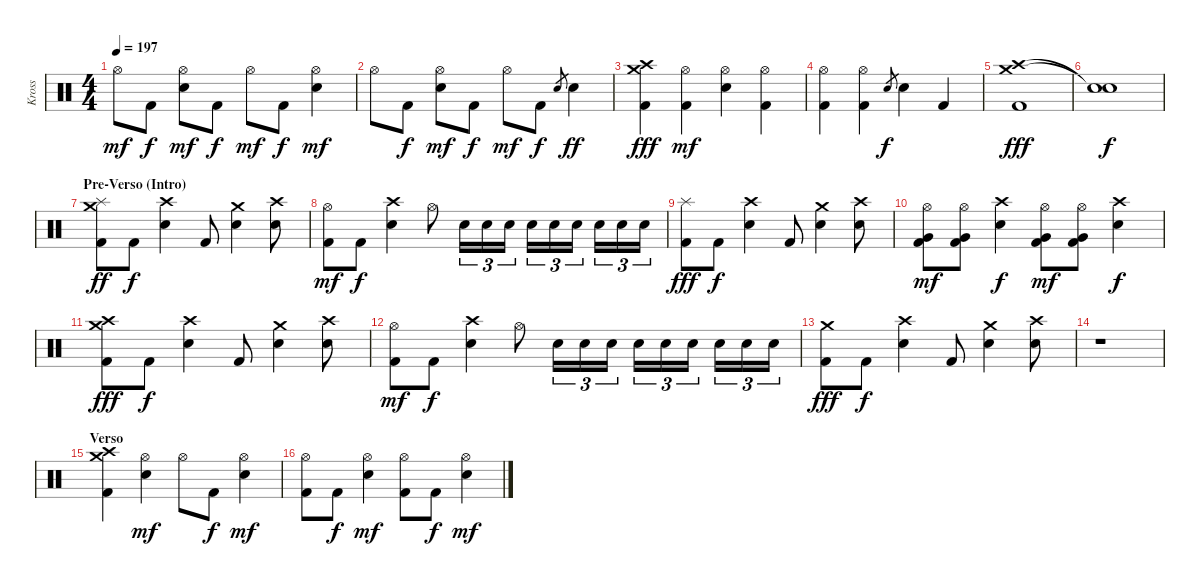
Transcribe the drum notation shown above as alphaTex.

\track ("Kross" "Kross") {instrument percussion}
\staff {score}
\articulation defaults
\ts (4 4)
\tempo 197
\clef neutral
\ks c "Hi-Hat (open)".8{dy mf} "Kick (hit) 2".8{dy f}
("Hi-Hat (open)" "Electric Snare (hit)").8{dy mf} "Kick (hit) 2".8{dy f} "Hi-Hat (open)".8{dy mf} "Kick (hit) 2".8{dy f} ("Hi-Hat (open)" "Electric Snare (hit)").4{dy mf} |
"Hi-Hat (open)".8 "Kick (hit) 2".8{dy f} ("Hi-Hat (open)" "Electric Snare (hit)").8{dy mf} "Kick (hit) 2".8{dy f} "Hi-Hat (open)".8{dy mf} "Kick (hit) 2".8{dy f} "Electric Snare (hit)".8{gr} "Electric Snare (hit)".4{dy ff} |
("Crash medium (hit)" "Crash high (hit)" "Kick (hit) 2").4{dy fff} ("Hi-Hat (open)" "Kick (hit) 2").4{dy mf} ("Hi-Hat (open)" "Electric Snare (hit)").4 ("Hi-Hat (open)" "Kick (hit) 2").4 |
("Hi-Hat (open)" "Kick (hit) 2").4 ("Hi-Hat (open)" "Kick (hit) 2").4 "Electric Snare (hit)".8{gr dy f} "Electric Snare (hit)".4 "Kick (hit) 2".4 |
("Crash high (hit)" "Crash medium (hit)" "Kick (hit) 2").1{dy fff} |
("Snare (hit)"{t} "Snare (hit)"{t}).1{dy f} |
\section ("" "Pre-Verso (Intro)")
("Crash medium (hit)" "Splash (hit)" "Kick (hit) 2").8{dy ff} "Kick (hit) 2".8{dy f} ("Crash high (hit)" "Electric Snare (hit)").4 "Kick (hit) 2".8 ("Crash medium (hit)" "Electric Snare (hit)").4 ("Crash high (hit)" "Electric Snare (hit)").8 |
("Hi-Hat (open)" "Kick (hit) 2").8{dy mf} "Kick (hit) 2".8{dy f} ("Crash high (hit)" "Electric Snare (hit)").4 "Hi-Hat (open)".8 "Electric Snare (hit)".16{tu (3 2)} "Electric Snare (hit)".16{tu (3 2)} "Electric Snare (hit)".16{tu (3 2)} "Electric Snare (hit)".16{tu (3 2)} "Electric Snare (hit)".16{tu (3 2)} "Electric Snare (hit)".16{tu (3 2)} "Electric Snare (hit)".16{tu (3 2)} "Electric Snare (hit)".16{tu (3 2)} "Electric Snare (hit)".16{tu (3 2)} |
("Splash (hit)" "Kick (hit) 2").8{dy fff} "Kick (hit) 2".8{dy f} ("Crash high (hit)" "Electric Snare (hit)").4 "Kick (hit) 2".8 ("Crash medium (hit)" "Electric Snare (hit)").4 ("Crash high (hit)" "Electric Snare (hit)").8 |
("Hi-Hat (open)" "Very Low Tom (hit)" "Kick (hit) 2").8{dy mf} ("Hi-Hat (open)" "Very Low Tom (hit)" "Kick (hit) 2").8 ("Crash high (hit)" "Electric Snare (hit)").4{dy f} ("Hi-Hat (open)" "Very Low Tom (hit)" "Kick (hit) 2").8{dy mf} ("Hi-Hat (open)" "Very Low Tom (hit)" "Kick (hit) 2").8 ("Crash high (hit)" "Electric Snare (hit)").4{dy f} |
("Crash medium (hit)" "Crash high (hit)" "Kick (hit) 2").8{dy fff} "Kick (hit) 2".8{dy f} ("Crash high (hit)" "Electric Snare (hit)").4 "Kick (hit) 2".8 ("Crash medium (hit)" "Electric Snare (hit)").4 ("Crash high (hit)" "Electric Snare (hit)").8 |
("Hi-Hat (open)" "Kick (hit) 2").8{dy mf} "Kick (hit) 2".8{dy f} ("Crash high (hit)" "Electric Snare (hit)").4 "Hi-Hat (open)".8 "Electric Snare (hit)".16{tu (3 2)} "Electric Snare (hit)".16{tu (3 2)} "Electric Snare (hit)".16{tu (3 2)} "Electric Snare (hit)".16{tu (3 2)} "Electric Snare (hit)".16{tu (3 2)} "Electric Snare (hit)".16{tu (3 2)} "Electric Snare (hit)".16{tu (3 2)} "Electric Snare (hit)".16{tu (3 2)} "Electric Snare (hit)".16{tu (3 2)} |
("Crash medium (hit)" "Kick (hit) 2").8{dy fff} "Kick (hit) 2".8{dy f} ("Crash high (hit)" "Electric Snare (hit)").4 "Kick (hit) 2".8 ("Crash medium (hit)" "Electric Snare (hit)").4 ("Crash high (hit)" "Electric Snare (hit)").8 |
r.1 |
\section ("" "Verso")
("Crash high (hit)" "Crash medium (hit)" "Kick (hit) 2").4 ("Hi-Hat (open)" "Electric Snare (hit)").4{dy mf} "Hi-Hat (open)".8 "Kick (hit) 2".8{dy f} ("Hi-Hat (open)" "Electric Snare (hit)").4{dy mf} |
("Hi-Hat (open)" "Kick (hit) 2").8 "Kick (hit) 2".8{dy f} ("Hi-Hat (open)" "Electric Snare (hit)").4{dy mf} ("Hi-Hat (open)" "Kick (hit) 2").8 "Kick (hit) 2".8{dy f} ("Hi-Hat (open)" "Electric Snare (hit)").4{dy mf}
